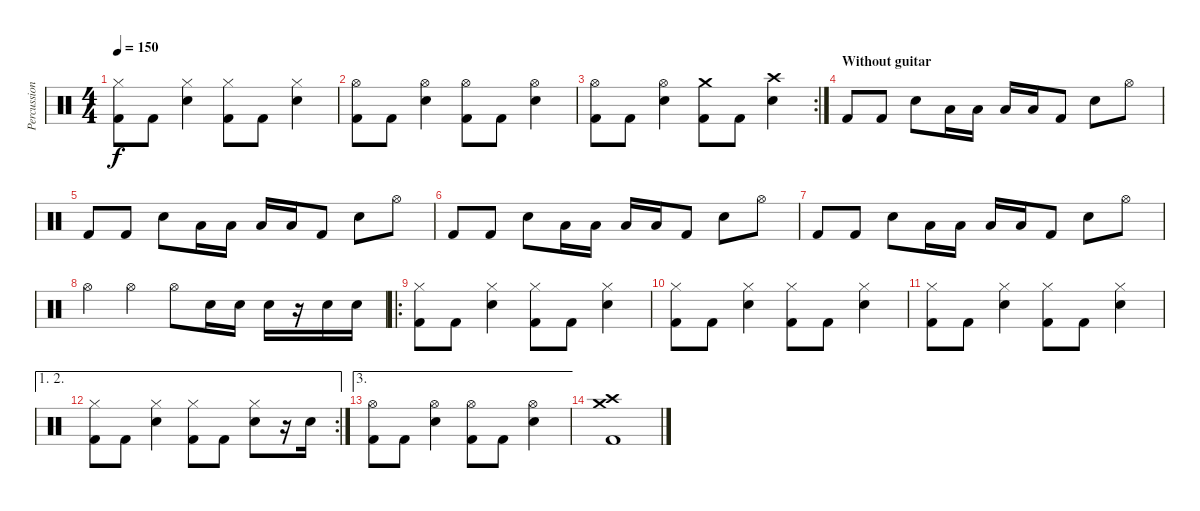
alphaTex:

\track ("Percussion" "Percussion") {instrument percussion}
\staff {score}
\articulation defaults
\ts (4 4)
\tempo 150
\clef neutral
\ks c
("Hi-Hat (closed)" "Kick (hit) 2").8{dy f} "Kick (hit) 2".8 ("Hi-Hat (closed)" "Electric Snare (hit)").4 ("Hi-Hat (closed)" "Kick (hit) 2").8 "Kick (hit) 2".8 ("Hi-Hat (closed)" "Electric Snare (hit)").4 |
("Hi-Hat (open)" "Kick (hit) 2").8 "Kick (hit) 2".8 ("Hi-Hat (open)" "Electric Snare (hit)").4 ("Hi-Hat (open)" "Kick (hit) 2").8 "Kick (hit) 2".8 ("Hi-Hat (open)" "Electric Snare (hit)").4 |
\rc 2
("Hi-Hat (open)" "Kick (hit) 2").8 "Kick (hit) 2".8 ("Hi-Hat (open)" "Electric Snare (hit)").4 ("Crash medium (hit)" "Kick (hit) 2").8 "Kick (hit) 2".8 ("Crash high (hit)" "Electric Snare (hit)").4 |
\section ("" "Without guitar")
"Kick (hit) 2".8 "Kick (hit) 2".8 "Electric Snare (hit)".8 "Low Floor Tom (hit)".16 "Low Floor Tom (hit)".16 "Low Floor Tom (hit)".16 "Low Floor Tom (hit)".16 "Kick (hit) 2".8 "Electric Snare (hit)".8 "Hi-Hat (open)".8 |
"Kick (hit) 2".8 "Kick (hit) 2".8 "Electric Snare (hit)".8 "Low Floor Tom (hit)".16 "Low Floor Tom (hit)".16 "Low Floor Tom (hit)".16 "Low Floor Tom (hit)".16 "Kick (hit) 2".8 "Electric Snare (hit)".8 "Hi-Hat (open)".8 |
"Kick (hit) 2".8 "Kick (hit) 2".8 "Electric Snare (hit)".8 "Low Floor Tom (hit)".16 "Low Floor Tom (hit)".16 "Low Floor Tom (hit)".16 "Low Floor Tom (hit)".16 "Kick (hit) 2".8 "Electric Snare (hit)".8 "Hi-Hat (open)".8 |
"Kick (hit) 2".8 "Kick (hit) 2".8 "Electric Snare (hit)".8 "Low Floor Tom (hit)".16 "Low Floor Tom (hit)".16 "Low Floor Tom (hit)".16 "Low Floor Tom (hit)".16 "Kick (hit) 2".8 "Electric Snare (hit)".8 "Hi-Hat (open)".8 |
"Hi-Hat (open)".4 "Hi-Hat (open)".4 "Hi-Hat (open)".8 "Electric Snare (hit)".16 "Electric Snare (hit)".16 "Electric Snare (hit)".16 r.16 "Electric Snare (hit)".16 "Electric Snare (hit)".16 |
\ro
("Hi-Hat (closed)" "Kick (hit) 2").8 "Kick (hit) 2".8 ("Hi-Hat (closed)" "Electric Snare (hit)").4 ("Hi-Hat (closed)" "Kick (hit) 2").8 "Kick (hit) 2".8 ("Hi-Hat (closed)" "Electric Snare (hit)").4 |
("Hi-Hat (closed)" "Kick (hit) 2").8 "Kick (hit) 2".8 ("Hi-Hat (closed)" "Electric Snare (hit)").4 ("Hi-Hat (closed)" "Kick (hit) 2").8 "Kick (hit) 2".8 ("Hi-Hat (closed)" "Electric Snare (hit)").4 |
("Hi-Hat (closed)" "Kick (hit) 2").8 "Kick (hit) 2".8 ("Hi-Hat (closed)" "Electric Snare (hit)").4 ("Hi-Hat (closed)" "Kick (hit) 2").8 "Kick (hit) 2".8 ("Hi-Hat (closed)" "Electric Snare (hit)").4 |
\ae (1 2)
\rc 2
("Hi-Hat (closed)" "Kick (hit) 2").8 "Kick (hit) 2".8 ("Hi-Hat (closed)" "Electric Snare (hit)").4 ("Hi-Hat (closed)" "Kick (hit) 2").8 "Kick (hit) 2".8 ("Hi-Hat (closed)" "Electric Snare (hit)").8 r.16 "Electric Snare (hit)".16 |
\ae 3
("Hi-Hat (open)" "Kick (hit) 2").8 "Kick (hit) 2".8 ("Hi-Hat (open)" "Electric Snare (hit)").4 ("Hi-Hat (open)" "Kick (hit) 2").8 "Kick (hit) 2".8 ("Hi-Hat (open)" "Electric Snare (hit)").4 |
("Crash high (hit)" "Crash medium (hit)" "Kick (hit) 2").1
